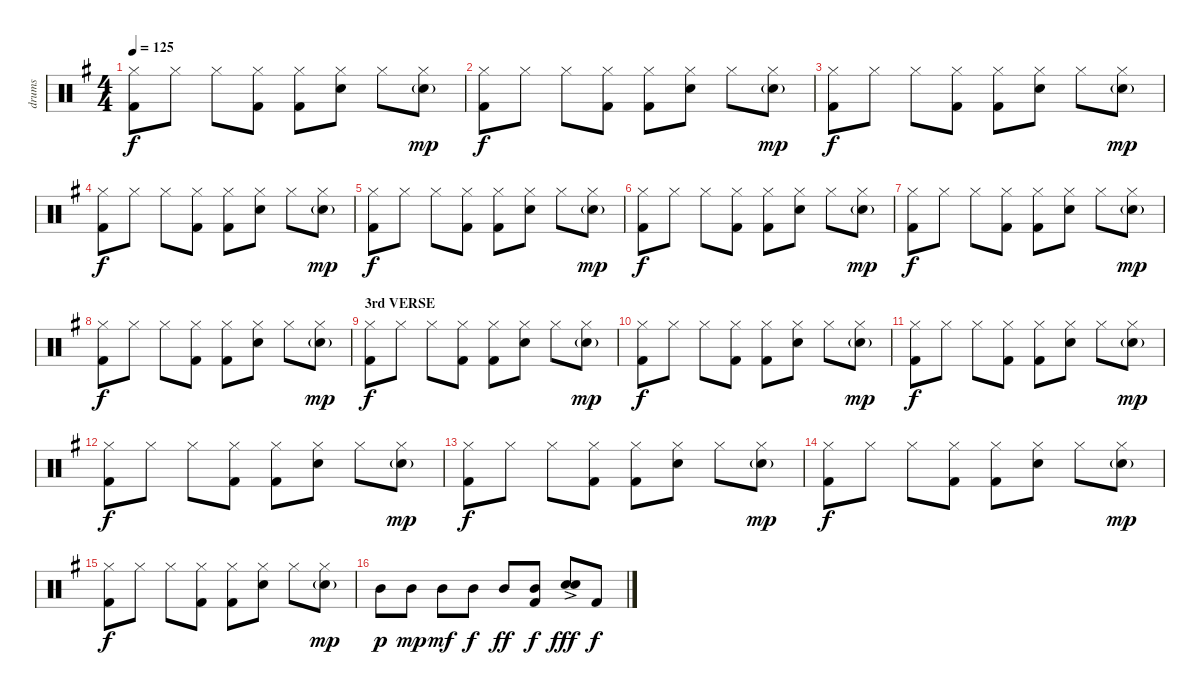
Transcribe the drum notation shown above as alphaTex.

\track ("drums" "drums") {instrument percussion}
\staff {score}
\articulation defaults
\ts (4 4)
\tempo 125
\clef neutral
\ks eminor
("Hi-Hat (closed)" "Kick (hit) 2").8{dy f} "Hi-Hat (closed)".8 "Hi-Hat (closed)".8 ("Hi-Hat (closed)" "Kick (hit) 2").8 ("Hi-Hat (closed)" "Kick (hit) 2").8 ("Hi-Hat (closed)" "Snare (hit) 2").8 "Hi-Hat (closed)".8 ("Hi-Hat (closed)" "Snare (hit) 2"{g}).8{dy mp} |
("Hi-Hat (closed)" "Kick (hit) 2").8{dy f} "Hi-Hat (closed)".8 "Hi-Hat (closed)".8 ("Hi-Hat (closed)" "Kick (hit) 2").8 ("Hi-Hat (closed)" "Kick (hit) 2").8 ("Hi-Hat (closed)" "Snare (hit) 2").8 "Hi-Hat (closed)".8 ("Hi-Hat (closed)" "Snare (hit) 2"{g}).8{dy mp} |
("Hi-Hat (closed)" "Kick (hit) 2").8{dy f} "Hi-Hat (closed)".8 "Hi-Hat (closed)".8 ("Hi-Hat (closed)" "Kick (hit) 2").8 ("Hi-Hat (closed)" "Kick (hit) 2").8 ("Hi-Hat (closed)" "Snare (hit) 2").8 "Hi-Hat (closed)".8 ("Hi-Hat (closed)" "Snare (hit) 2"{g}).8{dy mp} |
("Hi-Hat (closed)" "Kick (hit) 2").8{dy f} "Hi-Hat (closed)".8 "Hi-Hat (closed)".8 ("Hi-Hat (closed)" "Kick (hit) 2").8 ("Hi-Hat (closed)" "Kick (hit) 2").8 ("Hi-Hat (closed)" "Snare (hit) 2").8 "Hi-Hat (closed)".8 ("Hi-Hat (closed)" "Snare (hit) 2"{g}).8{dy mp} |
("Hi-Hat (closed)" "Kick (hit) 2").8{dy f} "Hi-Hat (closed)".8 "Hi-Hat (closed)".8 ("Hi-Hat (closed)" "Kick (hit) 2").8 ("Hi-Hat (closed)" "Kick (hit) 2").8 ("Hi-Hat (closed)" "Snare (hit) 2").8 "Hi-Hat (closed)".8 ("Hi-Hat (closed)" "Snare (hit) 2"{g}).8{dy mp} |
("Hi-Hat (closed)" "Kick (hit) 2").8{dy f} "Hi-Hat (closed)".8 "Hi-Hat (closed)".8 ("Hi-Hat (closed)" "Kick (hit) 2").8 ("Hi-Hat (closed)" "Kick (hit) 2").8 ("Hi-Hat (closed)" "Snare (hit) 2").8 "Hi-Hat (closed)".8 ("Hi-Hat (closed)" "Snare (hit) 2"{g}).8{dy mp} |
("Hi-Hat (closed)" "Kick (hit) 2").8{dy f} "Hi-Hat (closed)".8 "Hi-Hat (closed)".8 ("Hi-Hat (closed)" "Kick (hit) 2").8 ("Hi-Hat (closed)" "Kick (hit) 2").8 ("Hi-Hat (closed)" "Snare (hit) 2").8 "Hi-Hat (closed)".8 ("Hi-Hat (closed)" "Snare (hit) 2"{g}).8{dy mp} |
("Hi-Hat (closed)" "Kick (hit) 2").8{dy f} "Hi-Hat (closed)".8 "Hi-Hat (closed)".8 ("Hi-Hat (closed)" "Kick (hit) 2").8 ("Hi-Hat (closed)" "Kick (hit) 2").8 ("Hi-Hat (closed)" "Snare (hit) 2").8 "Hi-Hat (closed)".8 ("Hi-Hat (closed)" "Snare (hit) 2"{g}).8{dy mp} |
\section ("" "3rd VERSE")
("Hi-Hat (closed)" "Kick (hit) 2").8{dy f} "Hi-Hat (closed)".8 "Hi-Hat (closed)".8 ("Hi-Hat (closed)" "Kick (hit) 2").8 ("Hi-Hat (closed)" "Kick (hit) 2").8 ("Hi-Hat (closed)" "Snare (hit) 2").8 "Hi-Hat (closed)".8 ("Hi-Hat (closed)" "Snare (hit) 2"{g}).8{dy mp} |
("Hi-Hat (closed)" "Kick (hit) 2").8{dy f} "Hi-Hat (closed)".8 "Hi-Hat (closed)".8 ("Hi-Hat (closed)" "Kick (hit) 2").8 ("Hi-Hat (closed)" "Kick (hit) 2").8 ("Hi-Hat (closed)" "Snare (hit) 2").8 "Hi-Hat (closed)".8 ("Hi-Hat (closed)" "Snare (hit) 2"{g}).8{dy mp} |
("Hi-Hat (closed)" "Kick (hit) 2").8{dy f} "Hi-Hat (closed)".8 "Hi-Hat (closed)".8 ("Hi-Hat (closed)" "Kick (hit) 2").8 ("Hi-Hat (closed)" "Kick (hit) 2").8 ("Hi-Hat (closed)" "Snare (hit) 2").8 "Hi-Hat (closed)".8 ("Hi-Hat (closed)" "Snare (hit) 2"{g}).8{dy mp} |
("Hi-Hat (closed)" "Kick (hit) 2").8{dy f} "Hi-Hat (closed)".8 "Hi-Hat (closed)".8 ("Hi-Hat (closed)" "Kick (hit) 2").8 ("Hi-Hat (closed)" "Kick (hit) 2").8 ("Hi-Hat (closed)" "Snare (hit) 2").8 "Hi-Hat (closed)".8 ("Hi-Hat (closed)" "Snare (hit) 2"{g}).8{dy mp} |
("Hi-Hat (closed)" "Kick (hit) 2").8{dy f} "Hi-Hat (closed)".8 "Hi-Hat (closed)".8 ("Hi-Hat (closed)" "Kick (hit) 2").8 ("Hi-Hat (closed)" "Kick (hit) 2").8 ("Hi-Hat (closed)" "Snare (hit) 2").8 "Hi-Hat (closed)".8 ("Hi-Hat (closed)" "Snare (hit) 2"{g}).8{dy mp} |
("Hi-Hat (closed)" "Kick (hit) 2").8{dy f} "Hi-Hat (closed)".8 "Hi-Hat (closed)".8 ("Hi-Hat (closed)" "Kick (hit) 2").8 ("Hi-Hat (closed)" "Kick (hit) 2").8 ("Hi-Hat (closed)" "Snare (hit) 2").8 "Hi-Hat (closed)".8 ("Hi-Hat (closed)" "Snare (hit) 2"{g}).8{dy mp} |
("Hi-Hat (closed)" "Kick (hit) 2").8{dy f} "Hi-Hat (closed)".8 "Hi-Hat (closed)".8 ("Hi-Hat (closed)" "Kick (hit) 2").8 ("Hi-Hat (closed)" "Kick (hit) 2").8 ("Hi-Hat (closed)" "Snare (hit) 2").8 "Hi-Hat (closed)".8 ("Hi-Hat (closed)" "Snare (hit) 2"{g}).8{dy mp} |
"Mid Tom (hit)".8{dy p} "Mid Tom (hit)".8{dy mp} "Mid Tom (hit)".8{dy mf} "Mid Tom (hit)".8{dy f} "Mid Tom (hit)".8{dy ff} ("Mid Tom (hit)" "Kick (hit) 2").8{dy f} ("Electric Snare (hit)"{ac} "Snare (hit) 2").8{dy fff} "Kick (hit) 2".8{dy f}
